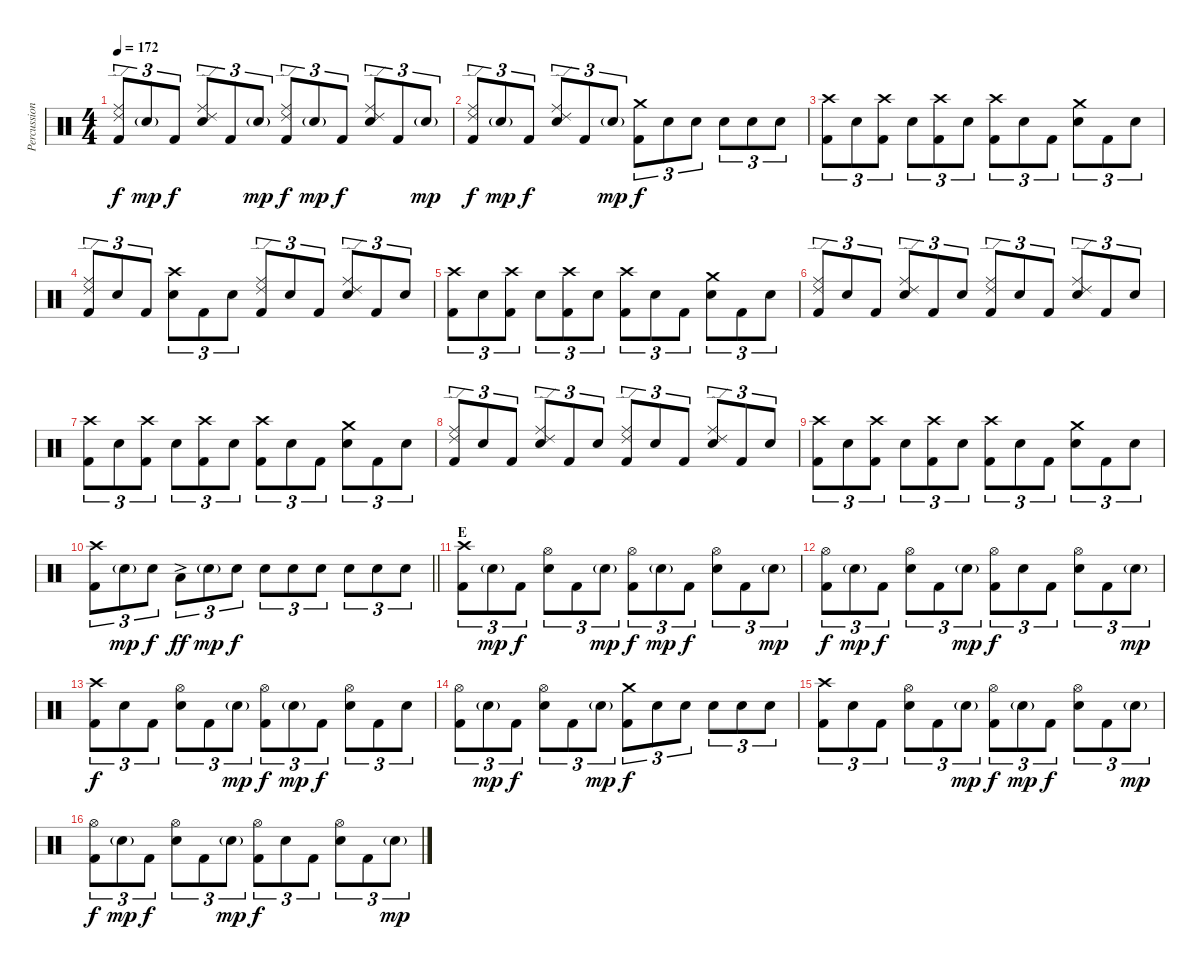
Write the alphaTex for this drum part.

\track ("Percussion" "Percussion") {instrument percussion}
\staff {score}
\articulation defaults
\ts (4 4)
\tempo 172
\clef neutral
\ks c
("Ride (edge) 2" "Ride (middle)" "Kick (hit) 2").8{tu (3 2) dy f} "Electric Snare (hit)"{g}.8{tu (3 2) dy mp} "Kick (hit) 2".8{tu (3 2) dy f} ("Ride (edge) 2" "Ride (middle)" "Electric Snare (hit)").8{tu (3 2)} "Kick (hit) 2".8{tu (3 2)} "Electric Snare (hit)"{g}.8{tu (3 2) dy mp} ("Ride (edge) 2" "Ride (middle)" "Kick (hit) 2").8{tu (3 2) dy f} "Electric Snare (hit)"{g}.8{tu (3 2) dy mp} "Kick (hit) 2".8{tu (3 2) dy f} ("Ride (edge) 2" "Ride (middle)" "Electric Snare (hit)").8{tu (3 2)} "Kick (hit) 2".8{tu (3 2)} "Electric Snare (hit)"{g}.8{tu (3 2) dy mp} |
("Ride (edge) 2" "Ride (middle)" "Kick (hit) 2").8{tu (3 2) dy f} "Electric Snare (hit)"{g}.8{tu (3 2) dy mp} "Kick (hit) 2".8{tu (3 2) dy f} ("Ride (edge) 2" "Ride (middle)" "Electric Snare (hit)").8{tu (3 2)} "Kick (hit) 2".8{tu (3 2)} "Electric Snare (hit)"{g}.8{tu (3 2) dy mp} ("Crash medium (hit)" "Kick (hit) 2").8{tu (3 2) dy f} "Electric Snare (hit)".8{tu (3 2)} "Electric Snare (hit)".8{tu (3 2)} "Electric Snare (hit)".8{tu (3 2)} "Electric Snare (hit)".8{tu (3 2)} "Electric Snare (hit)".8{tu (3 2)} |
("Crash high (hit)" "Kick (hit) 2").8{tu (3 2)} "Electric Snare (hit)".8{tu (3 2)} ("Crash high (hit)" "Kick (hit) 2").8{tu (3 2)} "Electric Snare (hit)".8{tu (3 2)} ("Crash high (hit)" "Kick (hit) 2").8{tu (3 2)} "Electric Snare (hit)".8{tu (3 2)} ("Crash high (hit)" "Kick (hit) 2").8{tu (3 2)} "Electric Snare (hit)".8{tu (3 2)} "Kick (hit) 2".8{tu (3 2)} ("Crash medium (hit)" "Electric Snare (hit)").8{tu (3 2)} "Kick (hit) 2".8{tu (3 2)} "Electric Snare (hit)".8{tu (3 2)} |
("Ride (edge) 2" "Ride (middle)" "Kick (hit) 2").8{tu (3 2)} "Electric Snare (hit)".8{tu (3 2)} "Kick (hit) 2".8{tu (3 2)} ("Crash high (hit)" "Electric Snare (hit)").8{tu (3 2)} "Kick (hit) 2".8{tu (3 2)} "Electric Snare (hit)".8{tu (3 2)} ("Ride (edge) 2" "Ride (middle)" "Kick (hit) 2").8{tu (3 2)} "Electric Snare (hit)".8{tu (3 2)} "Kick (hit) 2".8{tu (3 2)} ("Ride (edge) 2" "Ride (middle)" "Electric Snare (hit)").8{tu (3 2)} "Kick (hit) 2".8{tu (3 2)} "Electric Snare (hit)".8{tu (3 2)} |
("Crash high (hit)" "Kick (hit) 2").8{tu (3 2)} "Electric Snare (hit)".8{tu (3 2)} ("Crash high (hit)" "Kick (hit) 2").8{tu (3 2)} "Electric Snare (hit)".8{tu (3 2)} ("Crash high (hit)" "Kick (hit) 2").8{tu (3 2)} "Electric Snare (hit)".8{tu (3 2)} ("Crash high (hit)" "Kick (hit) 2").8{tu (3 2)} "Electric Snare (hit)".8{tu (3 2)} "Kick (hit) 2".8{tu (3 2)} ("Crash medium (hit)" "Electric Snare (hit)").8{tu (3 2)} "Kick (hit) 2".8{tu (3 2)} "Electric Snare (hit)".8{tu (3 2)} |
("Ride (edge) 2" "Ride (middle)" "Kick (hit) 2").8{tu (3 2)} "Electric Snare (hit)".8{tu (3 2)} "Kick (hit) 2".8{tu (3 2)} ("Ride (edge) 2" "Ride (middle)" "Electric Snare (hit)").8{tu (3 2)} "Kick (hit) 2".8{tu (3 2)} "Electric Snare (hit)".8{tu (3 2)} ("Ride (edge) 2" "Ride (middle)" "Kick (hit) 2").8{tu (3 2)} "Electric Snare (hit)".8{tu (3 2)} "Kick (hit) 2".8{tu (3 2)} ("Ride (edge) 2" "Ride (middle)" "Electric Snare (hit)").8{tu (3 2)} "Kick (hit) 2".8{tu (3 2)} "Electric Snare (hit)".8{tu (3 2)} |
("Crash high (hit)" "Kick (hit) 2").8{tu (3 2)} "Electric Snare (hit)".8{tu (3 2)} ("Crash high (hit)" "Kick (hit) 2").8{tu (3 2)} "Electric Snare (hit)".8{tu (3 2)} ("Crash high (hit)" "Kick (hit) 2").8{tu (3 2)} "Electric Snare (hit)".8{tu (3 2)} ("Crash high (hit)" "Kick (hit) 2").8{tu (3 2)} "Electric Snare (hit)".8{tu (3 2)} "Kick (hit) 2".8{tu (3 2)} ("Crash medium (hit)" "Electric Snare (hit)").8{tu (3 2)} "Kick (hit) 2".8{tu (3 2)} "Electric Snare (hit)".8{tu (3 2)} |
("Ride (edge) 2" "Ride (middle)" "Kick (hit) 2").8{tu (3 2)} "Electric Snare (hit)".8{tu (3 2)} "Kick (hit) 2".8{tu (3 2)} ("Ride (edge) 2" "Ride (middle)" "Electric Snare (hit)").8{tu (3 2)} "Kick (hit) 2".8{tu (3 2)} "Electric Snare (hit)".8{tu (3 2)} ("Ride (edge) 2" "Ride (middle)" "Kick (hit) 2").8{tu (3 2)} "Electric Snare (hit)".8{tu (3 2)} "Kick (hit) 2".8{tu (3 2)} ("Ride (edge) 2" "Ride (middle)" "Electric Snare (hit)").8{tu (3 2)} "Kick (hit) 2".8{tu (3 2)} "Electric Snare (hit)".8{tu (3 2)} |
("Crash high (hit)" "Kick (hit) 2").8{tu (3 2)} "Electric Snare (hit)".8{tu (3 2)} ("Crash high (hit)" "Kick (hit) 2").8{tu (3 2)} "Electric Snare (hit)".8{tu (3 2)} ("Crash high (hit)" "Kick (hit) 2").8{tu (3 2)} "Electric Snare (hit)".8{tu (3 2)} ("Crash high (hit)" "Kick (hit) 2").8{tu (3 2)} "Electric Snare (hit)".8{tu (3 2)} "Kick (hit) 2".8{tu (3 2)} ("Crash medium (hit)" "Electric Snare (hit)").8{tu (3 2)} "Kick (hit) 2".8{tu (3 2)} "Electric Snare (hit)".8{tu (3 2)} |
\barLineRight lightlight
("Crash high (hit)" "Kick (hit) 2").8{tu (3 2)} "Electric Snare (hit)"{g}.8{tu (3 2) dy mp} "Electric Snare (hit)".8{tu (3 2) dy f} "Low Tom (hit)"{ac}.8{tu (3 2) dy ff} "Electric Snare (hit)"{g}.8{tu (3 2) dy mp} "Electric Snare (hit)".8{tu (3 2) dy f} "Electric Snare (hit)".8{tu (3 2)} "Electric Snare (hit)".8{tu (3 2)} "Electric Snare (hit)".8{tu (3 2)} "Electric Snare (hit)".8{tu (3 2)} "Electric Snare (hit)".8{tu (3 2)} "Electric Snare (hit)".8{tu (3 2)} |
\section ("" "E")
("Crash high (hit)" "Kick (hit) 2").8{tu (3 2)} "Electric Snare (hit)"{g}.8{tu (3 2) dy mp} "Kick (hit) 2".8{tu (3 2) dy f} ("Hi-Hat (open)" "Electric Snare (hit)").8{tu (3 2)} "Kick (hit) 2".8{tu (3 2)} "Electric Snare (hit)"{g}.8{tu (3 2) dy mp} ("Hi-Hat (open)" "Kick (hit) 2").8{tu (3 2) dy f} "Electric Snare (hit)"{g}.8{tu (3 2) dy mp} "Kick (hit) 2".8{tu (3 2) dy f} ("Hi-Hat (open)" "Electric Snare (hit)").8{tu (3 2)} "Kick (hit) 2".8{tu (3 2)} "Electric Snare (hit)"{g}.8{tu (3 2) dy mp} |
("Hi-Hat (open)" "Kick (hit) 2").8{tu (3 2) dy f} "Electric Snare (hit)"{g}.8{tu (3 2) dy mp} "Kick (hit) 2".8{tu (3 2) dy f} ("Hi-Hat (open)" "Electric Snare (hit)").8{tu (3 2)} "Kick (hit) 2".8{tu (3 2)} "Electric Snare (hit)"{g}.8{tu (3 2) dy mp} ("Hi-Hat (open)" "Kick (hit) 2").8{tu (3 2) dy f} "Electric Snare (hit)".8{tu (3 2)} "Kick (hit) 2".8{tu (3 2)} ("Hi-Hat (open)" "Electric Snare (hit)").8{tu (3 2)} "Kick (hit) 2".8{tu (3 2)} "Electric Snare (hit)"{g}.8{tu (3 2) dy mp} |
("Crash high (hit)" "Kick (hit) 2").8{tu (3 2) dy f} "Electric Snare (hit)".8{tu (3 2)} "Kick (hit) 2".8{tu (3 2)} ("Hi-Hat (open)" "Electric Snare (hit)").8{tu (3 2)} "Kick (hit) 2".8{tu (3 2)} "Electric Snare (hit)"{g}.8{tu (3 2) dy mp} ("Hi-Hat (open)" "Kick (hit) 2").8{tu (3 2) dy f} "Electric Snare (hit)"{g}.8{tu (3 2) dy mp} "Kick (hit) 2".8{tu (3 2) dy f} ("Hi-Hat (open)" "Electric Snare (hit)").8{tu (3 2)} "Kick (hit) 2".8{tu (3 2)} "Electric Snare (hit)".8{tu (3 2)} |
("Hi-Hat (open)" "Kick (hit) 2").8{tu (3 2)} "Electric Snare (hit)"{g}.8{tu (3 2) dy mp} "Kick (hit) 2".8{tu (3 2) dy f} ("Hi-Hat (open)" "Electric Snare (hit)").8{tu (3 2)} "Kick (hit) 2".8{tu (3 2)} "Electric Snare (hit)"{g}.8{tu (3 2) dy mp} ("Crash medium (hit)" "Kick (hit) 2").8{tu (3 2) dy f} "Electric Snare (hit)".8{tu (3 2)} "Electric Snare (hit)".8{tu (3 2)} "Electric Snare (hit)".8{tu (3 2)} "Electric Snare (hit)".8{tu (3 2)} "Electric Snare (hit)".8{tu (3 2)} |
("Crash high (hit)" "Kick (hit) 2").8{tu (3 2)} "Electric Snare (hit)".8{tu (3 2)} "Kick (hit) 2".8{tu (3 2)} ("Hi-Hat (open)" "Electric Snare (hit)").8{tu (3 2)} "Kick (hit) 2".8{tu (3 2)} "Electric Snare (hit)"{g}.8{tu (3 2) dy mp} ("Hi-Hat (open)" "Kick (hit) 2").8{tu (3 2) dy f} "Electric Snare (hit)"{g}.8{tu (3 2) dy mp} "Kick (hit) 2".8{tu (3 2) dy f} ("Hi-Hat (open)" "Electric Snare (hit)").8{tu (3 2)} "Kick (hit) 2".8{tu (3 2)} "Electric Snare (hit)"{g}.8{tu (3 2) dy mp} |
("Hi-Hat (open)" "Kick (hit) 2").8{tu (3 2) dy f} "Electric Snare (hit)"{g}.8{tu (3 2) dy mp} "Kick (hit) 2".8{tu (3 2) dy f} ("Hi-Hat (open)" "Electric Snare (hit)").8{tu (3 2)} "Kick (hit) 2".8{tu (3 2)} "Electric Snare (hit)"{g}.8{tu (3 2) dy mp} ("Hi-Hat (open)" "Kick (hit) 2").8{tu (3 2) dy f} "Electric Snare (hit)".8{tu (3 2)} "Kick (hit) 2".8{tu (3 2)} ("Hi-Hat (open)" "Electric Snare (hit)").8{tu (3 2)} "Kick (hit) 2".8{tu (3 2)} "Electric Snare (hit)"{g}.8{tu (3 2) dy mp}
